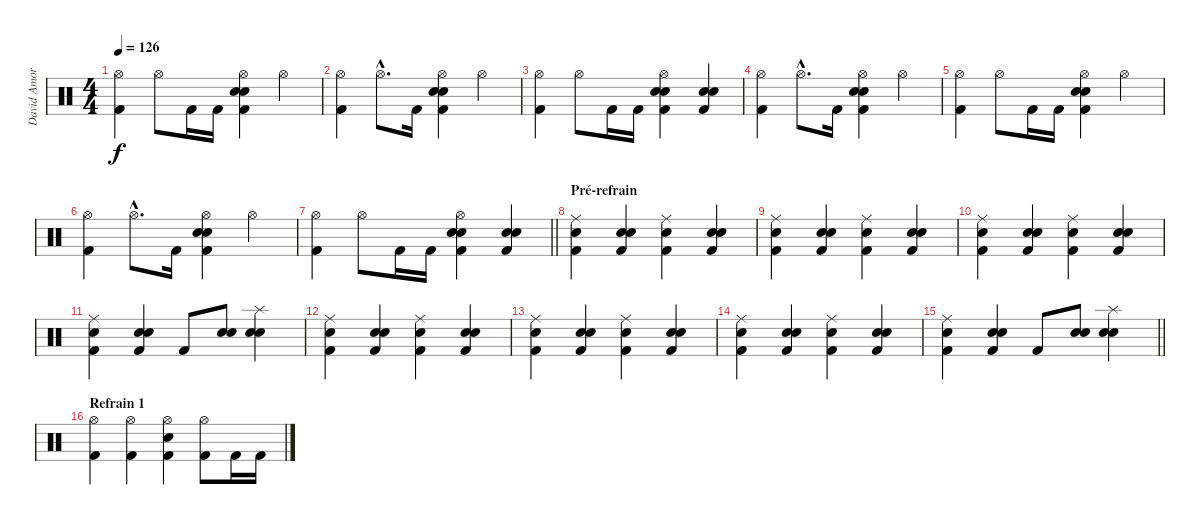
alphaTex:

\track ("David Amore" "David Amor") {instrument percussion}
\staff {score}
\articulation defaults
\ts (4 4)
\tempo 126
\clef neutral
\ks c
("Hi-Hat (open)" "Kick (hit) 2").4{dy f} "Hi-Hat (open)".8 "Kick (hit) 2".16 "Kick (hit) 2".16 ("Hi-Hat (open)" "Snare (hit) 2" "Electric Snare (hit)" "Kick (hit) 2").4 "Hi-Hat (open)".4 |
("Hi-Hat (open)" "Kick (hit) 2").4 "Hi-Hat (open)"{hac}.8{d} "Kick (hit) 2".16 ("Hi-Hat (open)" "Snare (hit) 2" "Electric Snare (hit)" "Kick (hit) 2").4 "Hi-Hat (open)".4 |
("Hi-Hat (open)" "Kick (hit) 2").4 "Hi-Hat (open)".8 "Kick (hit) 2".16 "Kick (hit) 2".16 ("Hi-Hat (open)" "Snare (hit) 2" "Electric Snare (hit)" "Kick (hit) 2").4 ("Kick (hit) 2" "Electric Snare (hit)" "Snare (hit) 2").4 |
("Hi-Hat (open)" "Kick (hit) 2").4 "Hi-Hat (open)"{hac}.8{d} "Kick (hit) 2".16 ("Hi-Hat (open)" "Snare (hit) 2" "Electric Snare (hit)" "Kick (hit) 2").4 "Hi-Hat (open)".4 |
("Hi-Hat (open)" "Kick (hit) 2").4 "Hi-Hat (open)".8 "Kick (hit) 2".16 "Kick (hit) 2".16 ("Hi-Hat (open)" "Snare (hit) 2" "Electric Snare (hit)" "Kick (hit) 2").4 "Hi-Hat (open)".4 |
("Hi-Hat (open)" "Kick (hit) 2").4 "Hi-Hat (open)"{hac}.8{d} "Kick (hit) 2".16 ("Hi-Hat (open)" "Snare (hit) 2" "Electric Snare (hit)" "Kick (hit) 2").4 "Hi-Hat (open)".4 |
\barLineRight lightlight
("Hi-Hat (open)" "Kick (hit) 2").4 "Hi-Hat (open)".8 "Kick (hit) 2".16 "Kick (hit) 2".16 ("Hi-Hat (open)" "Snare (hit) 2" "Electric Snare (hit)" "Kick (hit) 2").4 ("Kick (hit) 2" "Electric Snare (hit)" "Snare (hit) 2").4 |
\section ("" "Pré-refrain")
("Ride (middle)" "Electric Snare (hit)" "Kick (hit) 2").4 ("Electric Snare (hit)" "Snare (hit) 2" "Kick (hit) 2").4 ("Ride (middle)" "Electric Snare (hit)" "Kick (hit) 2").4 ("Snare (hit) 2" "Electric Snare (hit)" "Kick (hit) 2").4 |
("Ride (middle)" "Electric Snare (hit)" "Kick (hit) 2").4 ("Electric Snare (hit)" "Snare (hit) 2" "Kick (hit) 2").4 ("Ride (middle)" "Electric Snare (hit)" "Kick (hit) 2").4 ("Snare (hit) 2" "Electric Snare (hit)" "Kick (hit) 2").4 |
("Ride (middle)" "Electric Snare (hit)" "Kick (hit) 2").4 ("Electric Snare (hit)" "Snare (hit) 2" "Kick (hit) 2").4 ("Ride (middle)" "Electric Snare (hit)" "Kick (hit) 2").4 ("Snare (hit) 2" "Electric Snare (hit)" "Kick (hit) 2").4 |
("Ride (middle)" "Electric Snare (hit)" "Kick (hit) 2").4 ("Snare (hit) 2" "Electric Snare (hit)" "Kick (hit) 2").4 "Kick (hit) 2".8 ("Snare (hit) 2" "Electric Snare (hit)").8 ("Splash (hit)" "Snare (hit) 2" "Electric Snare (hit)").4 |
("Ride (middle)" "Electric Snare (hit)" "Kick (hit) 2").4 ("Electric Snare (hit)" "Snare (hit) 2" "Kick (hit) 2").4 ("Ride (middle)" "Electric Snare (hit)" "Kick (hit) 2").4 ("Snare (hit) 2" "Electric Snare (hit)" "Kick (hit) 2").4 |
("Ride (middle)" "Electric Snare (hit)" "Kick (hit) 2").4 ("Electric Snare (hit)" "Snare (hit) 2" "Kick (hit) 2").4 ("Ride (middle)" "Electric Snare (hit)" "Kick (hit) 2").4 ("Snare (hit) 2" "Electric Snare (hit)" "Kick (hit) 2").4 |
("Ride (middle)" "Electric Snare (hit)" "Kick (hit) 2").4 ("Electric Snare (hit)" "Snare (hit) 2" "Kick (hit) 2").4 ("Ride (middle)" "Electric Snare (hit)" "Kick (hit) 2").4 ("Snare (hit) 2" "Electric Snare (hit)" "Kick (hit) 2").4 |
\barLineRight lightlight
("Ride (middle)" "Electric Snare (hit)" "Kick (hit) 2").4 ("Snare (hit) 2" "Electric Snare (hit)" "Kick (hit) 2").4 "Kick (hit) 2".8 ("Snare (hit) 2" "Electric Snare (hit)").8 ("Splash (hit)" "Snare (hit) 2" "Electric Snare (hit)").4 |
\section ("" "Refrain 1")
("Hi-Hat (open)" "Kick (hit) 2").4 ("Hi-Hat (open)" "Kick (hit) 2").4 ("Hi-Hat (open)" "Snare (hit) 2" "Kick (hit) 2").4 ("Hi-Hat (open)" "Kick (hit) 2").8 "Kick (hit) 2".16 "Kick (hit) 2".16
